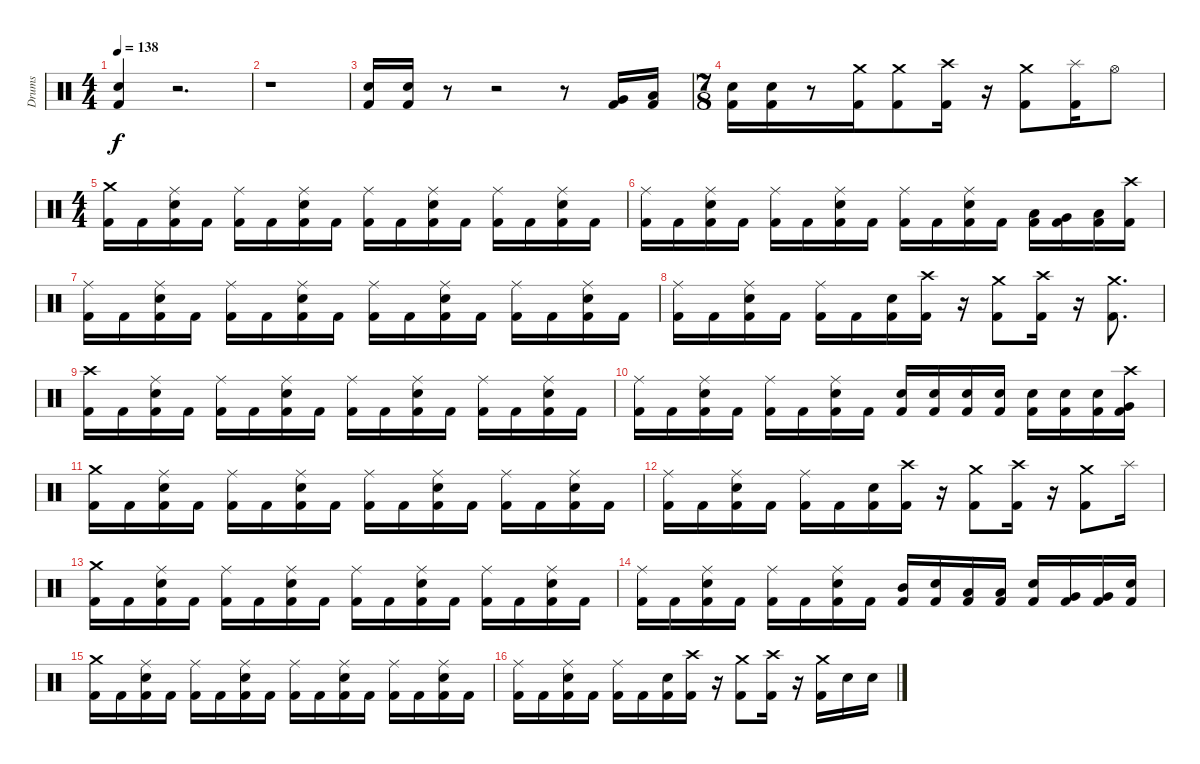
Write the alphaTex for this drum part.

\track ("Drums" "Drums") {instrument percussion}
\staff {score}
\articulation defaults
\ts (4 4)
\tempo 138
\clef neutral
\ks c
("Electric Snare (hit)" "Kick (hit) 2").4{dy f} r.2{d} |
r.1 |
("Electric Snare (hit)" "Kick (hit) 2").16 ("Electric Snare (hit)" "Kick (hit) 2").16 r.8 r.2 r.8 ("Very Low Tom (hit)" "Kick (hit) 2").16 ("Low Floor Tom (hit)" "Kick (hit) 2").16 |
\ts (7 8)
("Electric Snare (hit)" "Kick (hit) 2").16 ("Electric Snare (hit)" "Kick (hit) 2").16 r.8 ("Crash medium (hit)" "Kick (hit) 2").16 ("Crash medium (hit)" "Kick (hit) 2").8 ("Crash high (hit)" "Kick (hit) 2").16 r.16 ("Crash medium (hit)" "Kick (hit) 2").8 ("Splash (hit)" "Kick (hit) 2").16 "Hi-Hat (open)".8 |
\ts (4 4)
("Crash medium (hit)" "Kick (hit) 2").16 "Kick (hit) 2".16 ("Ride (middle)" "Electric Snare (hit)" "Kick (hit) 2").16 "Kick (hit) 2".16 ("Ride (middle)" "Kick (hit) 2").16 "Kick (hit) 2".16 ("Ride (middle)" "Electric Snare (hit)" "Kick (hit) 2").16 "Kick (hit) 2".16 ("Ride (middle)" "Kick (hit) 2").16 "Kick (hit) 2".16 ("Ride (middle)" "Electric Snare (hit)" "Kick (hit) 2").16 "Kick (hit) 2".16 ("Ride (middle)" "Kick (hit) 2").16 "Kick (hit) 2".16 ("Ride (middle)" "Electric Snare (hit)" "Kick (hit) 2").16 "Kick (hit) 2".16 |
("Ride (middle)" "Kick (hit) 2").16 "Kick (hit) 2".16 ("Ride (middle)" "Electric Snare (hit)" "Kick (hit) 2").16 "Kick (hit) 2".16 ("Ride (middle)" "Kick (hit) 2").16 "Kick (hit) 2".16 ("Ride (middle)" "Electric Snare (hit)" "Kick (hit) 2").16 "Kick (hit) 2".16 ("Ride (middle)" "Kick (hit) 2").16 "Kick (hit) 2".16 ("Ride (middle)" "Electric Snare (hit)" "Kick (hit) 2").16 "Kick (hit) 2".16 ("Low Tom (hit)" "Kick (hit) 2").16 ("Very Low Tom (hit)" "Kick (hit) 2").16 ("Low Floor Tom (hit)" "Kick (hit) 2").16 ("Crash high (hit)" "Kick (hit) 2").16 |
("Ride (middle)" "Kick (hit) 2").16 "Kick (hit) 2".16 ("Ride (middle)" "Electric Snare (hit)" "Kick (hit) 2").16 "Kick (hit) 2".16 ("Ride (middle)" "Kick (hit) 2").16 "Kick (hit) 2".16 ("Ride (middle)" "Electric Snare (hit)" "Kick (hit) 2").16 "Kick (hit) 2".16 ("Ride (middle)" "Kick (hit) 2").16 "Kick (hit) 2".16 ("Ride (middle)" "Electric Snare (hit)" "Kick (hit) 2").16 "Kick (hit) 2".16 ("Ride (middle)" "Kick (hit) 2").16 "Kick (hit) 2".16 ("Ride (middle)" "Electric Snare (hit)" "Kick (hit) 2").16 "Kick (hit) 2".16 |
("Ride (middle)" "Kick (hit) 2").16 "Kick (hit) 2".16 ("Ride (middle)" "Electric Snare (hit)" "Kick (hit) 2").16 "Kick (hit) 2".16 ("Ride (middle)" "Kick (hit) 2").16 "Kick (hit) 2".16 ("Electric Snare (hit)" "Kick (hit) 2").16 ("Crash high (hit)" "Kick (hit) 2").16 r.16 ("Crash medium (hit)" "Kick (hit) 2").8 ("Crash high (hit)" "Kick (hit) 2").16 r.16 ("Crash medium (hit)" "Kick (hit) 2").8{d} |
("Crash high (hit)" "Kick (hit) 2").16 "Kick (hit) 2".16 ("Ride (middle)" "Electric Snare (hit)" "Kick (hit) 2").16 "Kick (hit) 2".16 ("Ride (middle)" "Kick (hit) 2").16 "Kick (hit) 2".16 ("Ride (middle)" "Electric Snare (hit)" "Kick (hit) 2").16 "Kick (hit) 2".16 ("Ride (middle)" "Kick (hit) 2").16 "Kick (hit) 2".16 ("Ride (middle)" "Electric Snare (hit)" "Kick (hit) 2").16 "Kick (hit) 2".16 ("Ride (middle)" "Kick (hit) 2").16 "Kick (hit) 2".16 ("Ride (middle)" "Electric Snare (hit)" "Kick (hit) 2").16 "Kick (hit) 2".16 |
("Ride (middle)" "Kick (hit) 2").16 "Kick (hit) 2".16 ("Ride (middle)" "Electric Snare (hit)" "Kick (hit) 2").16 "Kick (hit) 2".16 ("Ride (middle)" "Kick (hit) 2").16 "Kick (hit) 2".16 ("Ride (middle)" "Electric Snare (hit)" "Kick (hit) 2").16 "Kick (hit) 2".16 ("Electric Snare (hit)" "Kick (hit) 2").16 ("Electric Snare (hit)" "Kick (hit) 2").16 ("Electric Snare (hit)" "Kick (hit) 2").16 ("Electric Snare (hit)" "Kick (hit) 2").16 ("Electric Snare (hit)" "Kick (hit) 2").16 ("Electric Snare (hit)" "Kick (hit) 2").16 ("Electric Snare (hit)" "Kick (hit) 2").16 ("Crash high (hit)" "Very Low Tom (hit)" "Kick (hit) 2").16 |
("Crash medium (hit)" "Kick (hit) 2").16 "Kick (hit) 2".16 ("Ride (middle)" "Electric Snare (hit)" "Kick (hit) 2").16 "Kick (hit) 2".16 ("Ride (middle)" "Kick (hit) 2").16 "Kick (hit) 2".16 ("Ride (middle)" "Electric Snare (hit)" "Kick (hit) 2").16 "Kick (hit) 2".16 ("Ride (middle)" "Kick (hit) 2").16 "Kick (hit) 2".16 ("Ride (middle)" "Electric Snare (hit)" "Kick (hit) 2").16 "Kick (hit) 2".16 ("Ride (middle)" "Kick (hit) 2").16 "Kick (hit) 2".16 ("Ride (middle)" "Electric Snare (hit)" "Kick (hit) 2").16 "Kick (hit) 2".16 |
("Ride (middle)" "Kick (hit) 2").16 "Kick (hit) 2".16 ("Ride (middle)" "Electric Snare (hit)" "Kick (hit) 2").16 "Kick (hit) 2".16 ("Ride (middle)" "Kick (hit) 2").16 "Kick (hit) 2".16 ("Electric Snare (hit)" "Kick (hit) 2").16 ("Crash high (hit)" "Kick (hit) 2").16 r.16 ("Crash medium (hit)" "Kick (hit) 2").8 ("Crash high (hit)" "Kick (hit) 2").16 r.16 ("Crash medium (hit)" "Kick (hit) 2").8 "Splash (hit)".16 |
("Crash medium (hit)" "Kick (hit) 2").16 "Kick (hit) 2".16 ("Ride (middle)" "Electric Snare (hit)" "Kick (hit) 2").16 "Kick (hit) 2".16 ("Ride (middle)" "Kick (hit) 2").16 "Kick (hit) 2".16 ("Ride (middle)" "Electric Snare (hit)" "Kick (hit) 2").16 "Kick (hit) 2".16 ("Ride (middle)" "Kick (hit) 2").16 "Kick (hit) 2".16 ("Ride (middle)" "Electric Snare (hit)" "Kick (hit) 2").16 "Kick (hit) 2".16 ("Ride (middle)" "Kick (hit) 2").16 "Kick (hit) 2".16 ("Ride (middle)" "Electric Snare (hit)" "Kick (hit) 2").16 "Kick (hit) 2".16 |
("Ride (middle)" "Kick (hit) 2").16 "Kick (hit) 2".16 ("Ride (middle)" "Electric Snare (hit)" "Kick (hit) 2").16 "Kick (hit) 2".16 ("Ride (middle)" "Kick (hit) 2").16 "Kick (hit) 2".16 ("Ride (middle)" "Electric Snare (hit)" "Kick (hit) 2").16 "Kick (hit) 2".16 ("Mid Tom (hit)" "Kick (hit) 2").16 ("Electric Snare (hit)" "Kick (hit) 2").16 ("Low Tom (hit)" "Kick (hit) 2").16 ("Low Tom (hit)" "Kick (hit) 2").16 ("Electric Snare (hit)" "Kick (hit) 2").16 ("Very Low Tom (hit)" "Kick (hit) 2").16 ("Very Low Tom (hit)" "Kick (hit) 2").16 ("Electric Snare (hit)" "Kick (hit) 2").16 |
("Crash medium (hit)" "Kick (hit) 2").16 "Kick (hit) 2".16 ("Ride (middle)" "Electric Snare (hit)" "Kick (hit) 2").16 "Kick (hit) 2".16 ("Ride (middle)" "Kick (hit) 2").16 "Kick (hit) 2".16 ("Ride (middle)" "Electric Snare (hit)" "Kick (hit) 2").16 "Kick (hit) 2".16 ("Ride (middle)" "Kick (hit) 2").16 "Kick (hit) 2".16 ("Ride (middle)" "Electric Snare (hit)" "Kick (hit) 2").16 "Kick (hit) 2".16 ("Ride (middle)" "Kick (hit) 2").16 "Kick (hit) 2".16 ("Ride (middle)" "Electric Snare (hit)" "Kick (hit) 2").16 "Kick (hit) 2".16 |
("Ride (middle)" "Kick (hit) 2").16 "Kick (hit) 2".16 ("Ride (middle)" "Electric Snare (hit)" "Kick (hit) 2").16 "Kick (hit) 2".16 ("Ride (middle)" "Kick (hit) 2").16 "Kick (hit) 2".16 ("Electric Snare (hit)" "Kick (hit) 2").16 ("Crash high (hit)" "Kick (hit) 2").16 r.16 ("Crash medium (hit)" "Kick (hit) 2").8 ("Crash high (hit)" "Kick (hit) 2").16 r.16 ("Crash medium (hit)" "Kick (hit) 2").16 "Electric Snare (hit)".16 "Electric Snare (hit)".16
